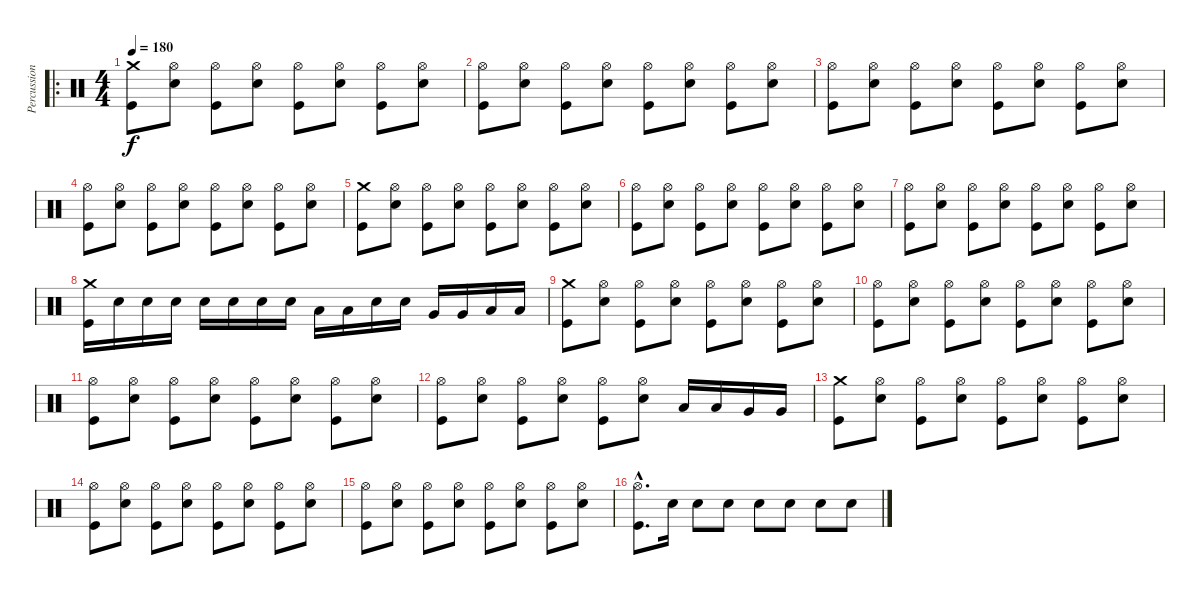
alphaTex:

\track ("Percussions" "Percussion") {instrument percussion}
\staff {score}
\articulation defaults
\ro
\ts (4 4)
\tempo 180
\clef neutral
\ks c
("Kick (hit)" "Crash medium (hit)").8{dy f} ("Electric Snare (hit)" "Hi-Hat (open)").8 ("Kick (hit)" "Hi-Hat (open)").8 ("Electric Snare (hit)" "Hi-Hat (open)").8 ("Kick (hit)" "Hi-Hat (open)").8 ("Electric Snare (hit)" "Hi-Hat (open)").8 ("Kick (hit)" "Hi-Hat (open)").8 ("Electric Snare (hit)" "Hi-Hat (open)").8 |
("Kick (hit)" "Hi-Hat (open)").8 ("Electric Snare (hit)" "Hi-Hat (open)").8 ("Kick (hit)" "Hi-Hat (open)").8 ("Electric Snare (hit)" "Hi-Hat (open)").8 ("Kick (hit)" "Hi-Hat (open)").8 ("Electric Snare (hit)" "Hi-Hat (open)").8 ("Kick (hit)" "Hi-Hat (open)").8 ("Electric Snare (hit)" "Hi-Hat (open)").8 |
("Kick (hit)" "Hi-Hat (open)").8 ("Electric Snare (hit)" "Hi-Hat (open)").8 ("Kick (hit)" "Hi-Hat (open)").8 ("Electric Snare (hit)" "Hi-Hat (open)").8 ("Kick (hit)" "Hi-Hat (open)").8 ("Electric Snare (hit)" "Hi-Hat (open)").8 ("Kick (hit)" "Hi-Hat (open)").8 ("Electric Snare (hit)" "Hi-Hat (open)").8 |
("Kick (hit)" "Hi-Hat (open)").8 ("Electric Snare (hit)" "Hi-Hat (open)").8 ("Kick (hit)" "Hi-Hat (open)").8 ("Electric Snare (hit)" "Hi-Hat (open)").8 ("Kick (hit)" "Hi-Hat (open)").8 ("Electric Snare (hit)" "Hi-Hat (open)").8 ("Kick (hit)" "Hi-Hat (open)").8 ("Electric Snare (hit)" "Hi-Hat (open)").8 |
("Kick (hit)" "Crash medium (hit)").8 ("Electric Snare (hit)" "Hi-Hat (open)").8 ("Kick (hit)" "Hi-Hat (open)").8 ("Electric Snare (hit)" "Hi-Hat (open)").8 ("Kick (hit)" "Hi-Hat (open)").8 ("Electric Snare (hit)" "Hi-Hat (open)").8 ("Kick (hit)" "Hi-Hat (open)").8 ("Electric Snare (hit)" "Hi-Hat (open)").8 |
("Kick (hit)" "Hi-Hat (open)").8 ("Electric Snare (hit)" "Hi-Hat (open)").8 ("Kick (hit)" "Hi-Hat (open)").8 ("Electric Snare (hit)" "Hi-Hat (open)").8 ("Kick (hit)" "Hi-Hat (open)").8 ("Electric Snare (hit)" "Hi-Hat (open)").8 ("Kick (hit)" "Hi-Hat (open)").8 ("Electric Snare (hit)" "Hi-Hat (open)").8 |
("Kick (hit)" "Hi-Hat (open)").8 ("Electric Snare (hit)" "Hi-Hat (open)").8 ("Kick (hit)" "Hi-Hat (open)").8 ("Electric Snare (hit)" "Hi-Hat (open)").8 ("Kick (hit)" "Hi-Hat (open)").8 ("Electric Snare (hit)" "Hi-Hat (open)").8 ("Kick (hit)" "Hi-Hat (open)").8 ("Electric Snare (hit)" "Hi-Hat (open)").8 |
("Kick (hit)" "Crash medium (hit)").16 "Electric Snare (hit)".16 "Electric Snare (hit)".16 "Electric Snare (hit)".16 "Electric Snare (hit)".16 "Electric Snare (hit)".16 "Electric Snare (hit)".16 "Electric Snare (hit)".16 "Low Tom (hit)".16 "Low Tom (hit)".16 "Electric Snare (hit)".16 "Electric Snare (hit)".16 "Very Low Tom (hit)".16 "Very Low Tom (hit)".16 "Low Floor Tom (hit)".16 "Low Floor Tom (hit)".16 |
("Kick (hit)" "Crash medium (hit)").8 ("Electric Snare (hit)" "Hi-Hat (open)").8 ("Kick (hit)" "Hi-Hat (open)").8 ("Electric Snare (hit)" "Hi-Hat (open)").8 ("Kick (hit)" "Hi-Hat (open)").8 ("Electric Snare (hit)" "Hi-Hat (open)").8 ("Kick (hit)" "Hi-Hat (open)").8 ("Electric Snare (hit)" "Hi-Hat (open)").8 |
("Kick (hit)" "Hi-Hat (open)").8 ("Electric Snare (hit)" "Hi-Hat (open)").8 ("Kick (hit)" "Hi-Hat (open)").8 ("Electric Snare (hit)" "Hi-Hat (open)").8 ("Kick (hit)" "Hi-Hat (open)").8 ("Electric Snare (hit)" "Hi-Hat (open)").8 ("Kick (hit)" "Hi-Hat (open)").8 ("Electric Snare (hit)" "Hi-Hat (open)").8 |
("Kick (hit)" "Hi-Hat (open)").8 ("Electric Snare (hit)" "Hi-Hat (open)").8 ("Kick (hit)" "Hi-Hat (open)").8 ("Electric Snare (hit)" "Hi-Hat (open)").8 ("Kick (hit)" "Hi-Hat (open)").8 ("Electric Snare (hit)" "Hi-Hat (open)").8 ("Kick (hit)" "Hi-Hat (open)").8 ("Electric Snare (hit)" "Hi-Hat (open)").8 |
("Kick (hit)" "Hi-Hat (open)").8 ("Electric Snare (hit)" "Hi-Hat (open)").8 ("Kick (hit)" "Hi-Hat (open)").8 ("Electric Snare (hit)" "Hi-Hat (open)").8 ("Kick (hit)" "Hi-Hat (open)").8 ("Electric Snare (hit)" "Hi-Hat (open)").8 "Low Tom (hit)".16 "Low Tom (hit)".16 "Very Low Tom (hit)".16 "Very Low Tom (hit)".16 |
("Kick (hit)" "Crash medium (hit)").8 ("Electric Snare (hit)" "Hi-Hat (open)").8 ("Kick (hit)" "Hi-Hat (open)").8 ("Electric Snare (hit)" "Hi-Hat (open)").8 ("Kick (hit)" "Hi-Hat (open)").8 ("Electric Snare (hit)" "Hi-Hat (open)").8 ("Kick (hit)" "Hi-Hat (open)").8 ("Electric Snare (hit)" "Hi-Hat (open)").8 |
("Kick (hit)" "Hi-Hat (open)").8 ("Electric Snare (hit)" "Hi-Hat (open)").8 ("Kick (hit)" "Hi-Hat (open)").8 ("Electric Snare (hit)" "Hi-Hat (open)").8 ("Kick (hit)" "Hi-Hat (open)").8 ("Electric Snare (hit)" "Hi-Hat (open)").8 ("Kick (hit)" "Hi-Hat (open)").8 ("Electric Snare (hit)" "Hi-Hat (open)").8 |
("Kick (hit)" "Hi-Hat (open)").8 ("Electric Snare (hit)" "Hi-Hat (open)").8 ("Kick (hit)" "Hi-Hat (open)").8 ("Electric Snare (hit)" "Hi-Hat (open)").8 ("Kick (hit)" "Hi-Hat (open)").8 ("Electric Snare (hit)" "Hi-Hat (open)").8 ("Kick (hit)" "Hi-Hat (open)").8 ("Electric Snare (hit)" "Hi-Hat (open)").8 |
("Kick (hit)"{hac} "Hi-Hat (open)"{hac}).8{d} "Electric Snare (hit)".16 "Electric Snare (hit)".8 "Electric Snare (hit)".8 "Electric Snare (hit)".8 "Electric Snare (hit)".8 "Electric Snare (hit)".8 "Electric Snare (hit)".8
